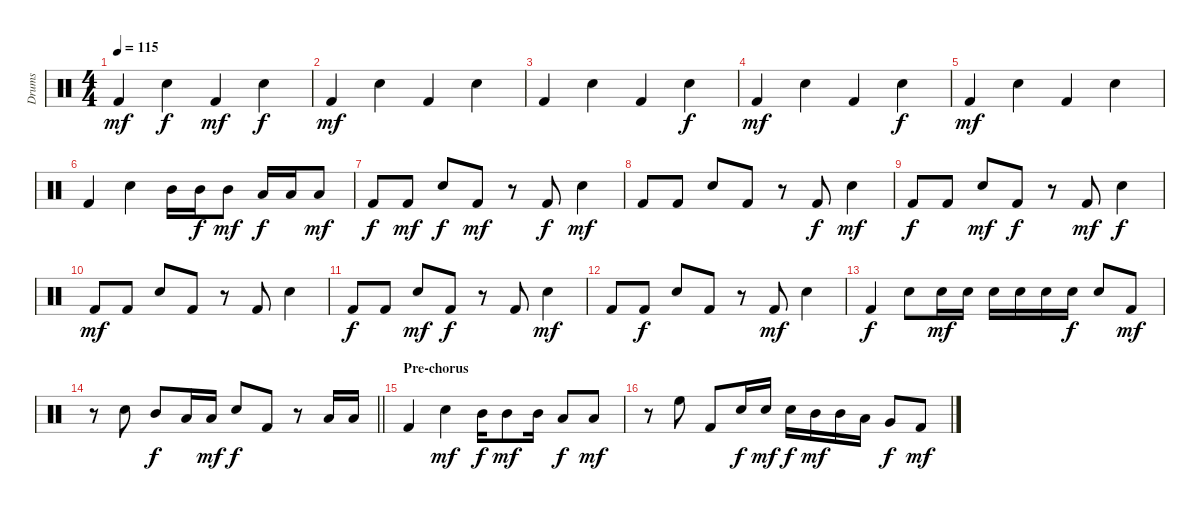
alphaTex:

\track ("Drums" "Drums") {instrument percussion}
\staff {score}
\articulation defaults
\ts (4 4)
\tempo 115
\clef neutral
\ks c "Kick (hit) 2".4{dy mf} "Electric Snare (hit)".4{dy f} "Kick (hit) 2".4{dy mf} "Electric Snare (hit)".4{dy f}
|
"Kick (hit) 2".4{dy mf} "Electric Snare (hit)".4 "Kick (hit) 2".4 "Electric Snare (hit)".4 |
"Kick (hit) 2".4 "Electric Snare (hit)".4 "Kick (hit) 2".4 "Electric Snare (hit)".4{dy f} |
"Kick (hit) 2".4{dy mf} "Electric Snare (hit)".4 "Kick (hit) 2".4 "Electric Snare (hit)".4{dy f} |
"Kick (hit) 2".4{dy mf} "Electric Snare (hit)".4 "Kick (hit) 2".4 "Electric Snare (hit)".4 |
"Kick (hit) 2".4 "Electric Snare (hit)".4 "Mid Tom (hit)".16 "Mid Tom (hit)".16{dy f} "Mid Tom (hit)".8{dy mf} "Low Tom (hit)".16{dy f} "Low Tom (hit)".16 "Low Tom (hit)".8{dy mf} |
"Kick (hit) 2".8{dy f} "Kick (hit) 2".8{dy mf} "Electric Snare (hit)".8{dy f} "Kick (hit) 2".8{dy mf} r.8 "Kick (hit) 2".8{dy f} "Electric Snare (hit)".4{dy mf} |
"Kick (hit) 2".8 "Kick (hit) 2".8 "Electric Snare (hit)".8 "Kick (hit) 2".8 r.8 "Kick (hit) 2".8{dy f} "Electric Snare (hit)".4{dy mf} |
"Kick (hit) 2".8{dy f} "Kick (hit) 2".8 "Electric Snare (hit)".8{dy mf} "Kick (hit) 2".8{dy f} r.8 "Kick (hit) 2".8{dy mf} "Electric Snare (hit)".4{dy f} |
"Kick (hit) 2".8{dy mf} "Kick (hit) 2".8 "Electric Snare (hit)".8 "Kick (hit) 2".8 r.8 "Kick (hit) 2".8 "Electric Snare (hit)".4 |
"Kick (hit) 2".8{dy f} "Kick (hit) 2".8 "Electric Snare (hit)".8{dy mf} "Kick (hit) 2".8{dy f} r.8 "Kick (hit) 2".8 "Electric Snare (hit)".4{dy mf} |
"Kick (hit) 2".8 "Kick (hit) 2".8{dy f} "Electric Snare (hit)".8 "Kick (hit) 2".8 r.8 "Kick (hit) 2".8{dy mf} "Electric Snare (hit)".4 |
"Kick (hit) 2".4{dy f} "Electric Snare (hit)".8 "Electric Snare (hit)".16{dy mf} "Electric Snare (hit)".16 "Electric Snare (hit)".16 "Electric Snare (hit)".16 "Electric Snare (hit)".16 "Electric Snare (hit)".16{dy f} "Electric Snare (hit)".8 "Kick (hit) 2".8{dy mf} |
\barLineRight lightlight
r.8 "Electric Snare (hit)".8 "Mid Tom (hit)".8{dy f} "Low Tom (hit)".16 "Low Tom (hit)".16{dy mf} "Electric Snare (hit)".8{dy f} "Kick (hit) 2".8 r.8 "Low Tom (hit)".16 "Low Tom (hit)".16 |
\section ("" "Pre-chorus")
"Kick (hit) 2".4 "Electric Snare (hit)".4{dy mf} "Mid Tom (hit)".16{dy f} "Mid Tom (hit)".8{dy mf} "Mid Tom (hit)".16 "Low Tom (hit)".8{dy f} "Low Floor Tom (hit)".8{dy mf} |
r.8 "High Floor Tom (hit)".8 "Kick (hit) 2".8 "Electric Snare (hit)".16{dy f} "Electric Snare (hit)".16{dy mf} "Electric Snare (hit)".16{dy f} "Mid Tom (hit)".16{dy mf} "Mid Tom (hit)".16 "Low Tom (hit)".16 "Very Low Tom (hit)".8{dy f} "Kick (hit) 2".8{dy mf}
